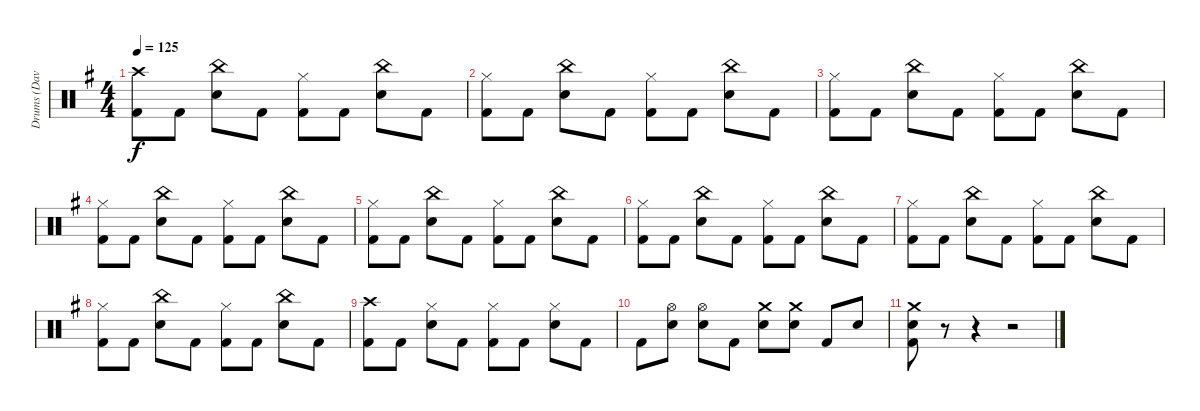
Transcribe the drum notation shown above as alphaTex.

\track ("Drums (Dave Holland)" "Drums (Dav") {instrument percussion}
\staff {score}
\articulation defaults
\ts (4 4)
\tempo 125
\clef neutral
\ks g
("Crash high (hit)" "Kick (hit) 2").8{dy f} "Kick (hit) 2".8 ("China (hit)" "Snare (hit) 2").8 "Kick (hit) 2".8 ("Hi-Hat (closed)" "Kick (hit) 2").8 "Kick (hit) 2".8 ("China (hit)" "Snare (hit) 2").8 "Kick (hit) 2".8 |
("Hi-Hat (closed)" "Kick (hit) 2").8 "Kick (hit) 2".8 ("China (hit)" "Snare (hit) 2").8 "Kick (hit) 2".8 ("Hi-Hat (closed)" "Kick (hit) 2").8 "Kick (hit) 2".8 ("China (hit)" "Snare (hit) 2").8 "Kick (hit) 2".8 |
("Hi-Hat (closed)" "Kick (hit) 2").8 "Kick (hit) 2".8 ("China (hit)" "Snare (hit) 2").8 "Kick (hit) 2".8 ("Hi-Hat (closed)" "Kick (hit) 2").8 "Kick (hit) 2".8 ("China (hit)" "Snare (hit) 2").8 "Kick (hit) 2".8 |
("Hi-Hat (closed)" "Kick (hit) 2").8 "Kick (hit) 2".8 ("China (hit)" "Snare (hit) 2").8 "Kick (hit) 2".8 ("Hi-Hat (closed)" "Kick (hit) 2").8 "Kick (hit) 2".8 ("China (hit)" "Snare (hit) 2").8 "Kick (hit) 2".8 |
("Hi-Hat (closed)" "Kick (hit) 2").8 "Kick (hit) 2".8 ("China (hit)" "Snare (hit) 2").8 "Kick (hit) 2".8 ("Hi-Hat (closed)" "Kick (hit) 2").8 "Kick (hit) 2".8 ("China (hit)" "Snare (hit) 2").8 "Kick (hit) 2".8 |
("Hi-Hat (closed)" "Kick (hit) 2").8 "Kick (hit) 2".8 ("China (hit)" "Snare (hit) 2").8 "Kick (hit) 2".8 ("Hi-Hat (closed)" "Kick (hit) 2").8 "Kick (hit) 2".8 ("China (hit)" "Snare (hit) 2").8 "Kick (hit) 2".8 |
("Hi-Hat (closed)" "Kick (hit) 2").8 "Kick (hit) 2".8 ("China (hit)" "Snare (hit) 2").8 "Kick (hit) 2".8 ("Hi-Hat (closed)" "Kick (hit) 2").8 "Kick (hit) 2".8 ("China (hit)" "Snare (hit) 2").8 "Kick (hit) 2".8 |
("Hi-Hat (closed)" "Kick (hit) 2").8 "Kick (hit) 2".8 ("China (hit)" "Snare (hit) 2").8 "Kick (hit) 2".8 ("Hi-Hat (closed)" "Kick (hit) 2").8 "Kick (hit) 2".8 ("China (hit)" "Snare (hit) 2").8 "Kick (hit) 2".8 |
("Crash high (hit)" "Kick (hit) 2").8 "Kick (hit) 2".8 ("Hi-Hat (closed)" "Snare (hit) 2").8 "Kick (hit) 2".8 ("Hi-Hat (closed)" "Kick (hit) 2").8 "Kick (hit) 2".8 ("Hi-Hat (closed)" "Snare (hit) 2").8 "Kick (hit) 2".8 |
"Kick (hit) 2".8 ("Hi-Hat (open)" "Snare (hit) 2").8 ("Hi-Hat (open)" "Snare (hit) 2").8 "Kick (hit) 2".8 ("Crash medium (hit)" "Snare (hit) 2").8 ("Crash medium (hit)" "Snare (hit) 2").8 "Kick (hit) 2".8 "Snare (hit) 2".8 |
("Crash medium (hit)" "Snare (hit) 2" "Kick (hit) 2").8 r.8 r.4 r.2
